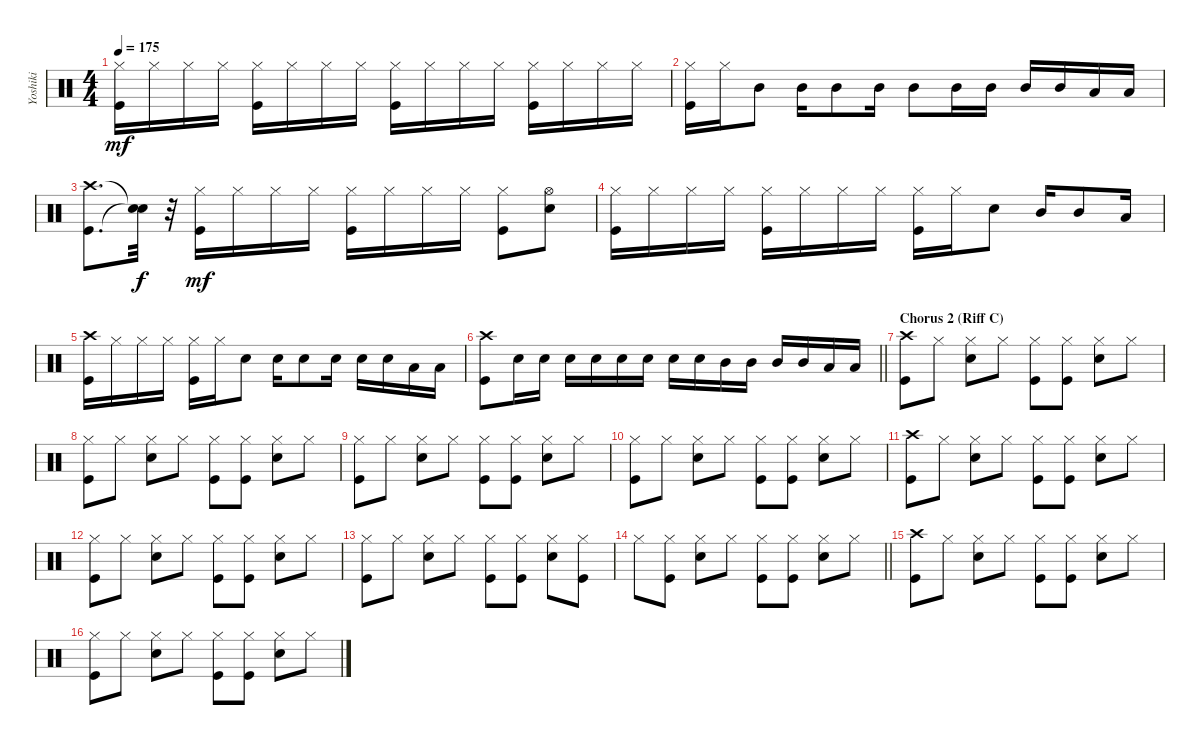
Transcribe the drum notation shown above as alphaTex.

\track ("Yoshiki" "Yoshiki") {instrument percussion}
\staff {score}
\articulation defaults
\ts (4 4)
\tempo 175
\clef neutral
\ks c
("Hi-Hat (closed)" "Kick (hit)").16{dy mf} "Hi-Hat (closed)".16 "Hi-Hat (closed)".16 "Hi-Hat (closed)".16 ("Hi-Hat (closed)" "Kick (hit)").16 "Hi-Hat (closed)".16 "Hi-Hat (closed)".16 "Hi-Hat (closed)".16 ("Hi-Hat (closed)" "Kick (hit)").16 "Hi-Hat (closed)".16 "Hi-Hat (closed)".16 "Hi-Hat (closed)".16 ("Hi-Hat (closed)" "Kick (hit)").16 "Hi-Hat (closed)".16 "Hi-Hat (closed)".16 "Hi-Hat (closed)".16 |
("Hi-Hat (closed)" "Kick (hit)").16 "Hi-Hat (closed)".16 "Mid Tom (hit)".8 "Mid Tom (hit)".16 "Mid Tom (hit)".8 "Mid Tom (hit)".16 "Mid Tom (hit)".8 "Mid Tom (hit)".16 "Mid Tom (hit)".16 "Mid Tom (hit)".16 "Mid Tom (hit)".16 "Low Tom (hit)".16 "Low Tom (hit)".16 |
("Crash high (hit)" "Kick (hit)").8{d} ("Snare (hit)"{t} "Snare (hit)"{t}).32{dy f} r.32 ("Hi-Hat (closed)" "Kick (hit)").16{dy mf} "Hi-Hat (closed)".16 "Hi-Hat (closed)".16 "Hi-Hat (closed)".16 ("Hi-Hat (closed)" "Kick (hit)").16 "Hi-Hat (closed)".16 "Hi-Hat (closed)".16 "Hi-Hat (closed)".16 ("Kick (hit)" "Hi-Hat (closed)").8 ("Snare (hit) 2" "Hi-Hat (open)").8 |
("Hi-Hat (closed)" "Kick (hit)").16 "Hi-Hat (closed)".16 "Hi-Hat (closed)".16 "Hi-Hat (closed)".16 ("Hi-Hat (closed)" "Kick (hit)").16 "Hi-Hat (closed)".16 "Hi-Hat (closed)".16 "Hi-Hat (closed)".16 ("Hi-Hat (closed)" "Kick (hit)").16 "Hi-Hat (closed)".16 "Snare (hit) 2".8 "Mid Tom (hit)".16 "Mid Tom (hit)".8 "Low Tom (hit)".16 |
("Crash high (hit)" "Kick (hit)").16 "Hi-Hat (closed)".16 "Hi-Hat (closed)".16 "Hi-Hat (closed)".16 ("Hi-Hat (closed)" "Kick (hit)").16 "Hi-Hat (closed)".16 "Snare (hit) 2".8 "Snare (hit) 2".16 "Snare (hit) 2".8 "Snare (hit) 2".16 "Snare (hit) 2".16 "Snare (hit) 2".16 "Low Tom (hit)".16 "Low Tom (hit)".16 |
\barLineRight lightlight
("Crash high (hit)" "Kick (hit)").8 "Snare (hit) 2".16 "Snare (hit) 2".16 "Snare (hit) 2".16 "Snare (hit) 2".16 "Snare (hit) 2".16 "Snare (hit) 2".16 "Snare (hit) 2".16 "Snare (hit) 2".16 "Mid Tom (hit)".16 "Mid Tom (hit)".16 "Mid Tom (hit)".16 "Mid Tom (hit)".16 "Low Tom (hit)".16 "Low Tom (hit)".16 |
\section ("" "Chorus 2 (Riff C)")
("Crash high (hit)" "Kick (hit)").8 "Hi-Hat (closed)".8 ("Snare (hit) 2" "Hi-Hat (closed)").8 "Hi-Hat (closed)".8 ("Hi-Hat (closed)" "Kick (hit)").8 ("Hi-Hat (closed)" "Kick (hit)").8 ("Snare (hit) 2" "Hi-Hat (closed)").8 "Hi-Hat (closed)".8 |
("Hi-Hat (closed)" "Kick (hit)").8 "Hi-Hat (closed)".8 ("Snare (hit) 2" "Hi-Hat (closed)").8 "Hi-Hat (closed)".8 ("Hi-Hat (closed)" "Kick (hit)").8 ("Hi-Hat (closed)" "Kick (hit)").8 ("Snare (hit) 2" "Hi-Hat (closed)").8 "Hi-Hat (closed)".8 |
("Hi-Hat (closed)" "Kick (hit)").8 "Hi-Hat (closed)".8 ("Snare (hit) 2" "Hi-Hat (closed)").8 "Hi-Hat (closed)".8 ("Hi-Hat (closed)" "Kick (hit)").8 ("Hi-Hat (closed)" "Kick (hit)").8 ("Snare (hit) 2" "Hi-Hat (closed)").8 "Hi-Hat (closed)".8 |
("Hi-Hat (closed)" "Kick (hit)").8 "Hi-Hat (closed)".8 ("Snare (hit) 2" "Hi-Hat (closed)").8 "Hi-Hat (closed)".8 ("Hi-Hat (closed)" "Kick (hit)").8 ("Hi-Hat (closed)" "Kick (hit)").8 ("Snare (hit) 2" "Hi-Hat (closed)").8 "Hi-Hat (closed)".8 |
("Crash high (hit)" "Kick (hit)").8 "Hi-Hat (closed)".8 ("Snare (hit) 2" "Hi-Hat (closed)").8 "Hi-Hat (closed)".8 ("Hi-Hat (closed)" "Kick (hit)").8 ("Hi-Hat (closed)" "Kick (hit)").8 ("Snare (hit) 2" "Hi-Hat (closed)").8 "Hi-Hat (closed)".8 |
("Hi-Hat (closed)" "Kick (hit)").8 "Hi-Hat (closed)".8 ("Snare (hit) 2" "Hi-Hat (closed)").8 "Hi-Hat (closed)".8 ("Hi-Hat (closed)" "Kick (hit)").8 ("Hi-Hat (closed)" "Kick (hit)").8 ("Snare (hit) 2" "Hi-Hat (closed)").8 "Hi-Hat (closed)".8 |
("Hi-Hat (closed)" "Kick (hit)").8 "Hi-Hat (closed)".8 ("Snare (hit) 2" "Hi-Hat (closed)").8 "Hi-Hat (closed)".8 ("Hi-Hat (closed)" "Kick (hit)").8 ("Hi-Hat (closed)" "Kick (hit)").8 ("Snare (hit) 2" "Hi-Hat (closed)").8 ("Hi-Hat (closed)" "Kick (hit)").8 |
\barLineRight lightlight "Hi-Hat (closed)".8
("Hi-Hat (closed)" "Kick (hit)").8 ("Snare (hit) 2" "Hi-Hat (closed)").8 "Hi-Hat (closed)".8 ("Kick (hit)" "Hi-Hat (closed)").8 ("Kick (hit)" "Hi-Hat (closed)").8 ("Snare (hit) 2" "Hi-Hat (closed)").8 "Hi-Hat (closed)".8 |
("Crash high (hit)" "Kick (hit)").8 "Hi-Hat (closed)".8 ("Snare (hit) 2" "Hi-Hat (closed)").8 "Hi-Hat (closed)".8 ("Hi-Hat (closed)" "Kick (hit)").8 ("Hi-Hat (closed)" "Kick (hit)").8 ("Snare (hit) 2" "Hi-Hat (closed)").8 "Hi-Hat (closed)".8 |
("Hi-Hat (closed)" "Kick (hit)").8 "Hi-Hat (closed)".8 ("Snare (hit) 2" "Hi-Hat (closed)").8 "Hi-Hat (closed)".8 ("Hi-Hat (closed)" "Kick (hit)").8 ("Hi-Hat (closed)" "Kick (hit)").8 ("Snare (hit) 2" "Hi-Hat (closed)").8 "Hi-Hat (closed)".8
